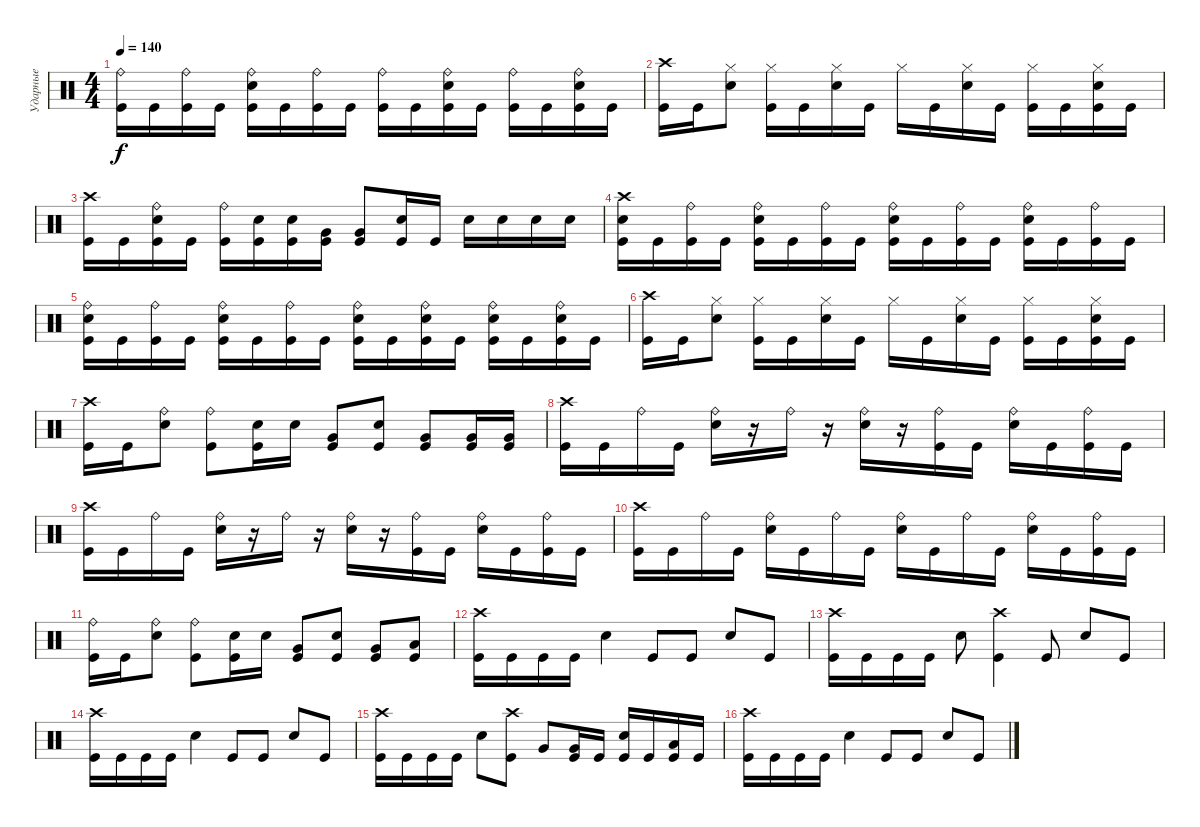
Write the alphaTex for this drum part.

\track ("Ударные" "Ударные") {instrument percussion}
\staff {score}
\articulation defaults
\ts (4 4)
\tempo 140
\clef neutral
\ks c
("Ride (bell)" "Kick (hit)").16{dy f} "Kick (hit)".16 ("Ride (bell)" "Kick (hit)").16 "Kick (hit)".16 ("Ride (bell)" "Electric Snare (hit)" "Kick (hit)").16 "Kick (hit)".16 ("Ride (bell)" "Kick (hit)").16 "Kick (hit)".16 ("Ride (bell)" "Kick (hit)").16 "Kick (hit)".16 ("Ride (bell)" "Electric Snare (hit)" "Kick (hit)").16 "Kick (hit)".16 ("Ride (bell)" "Kick (hit)").16 "Kick (hit)".16 ("Ride (bell)" "Electric Snare (hit)" "Kick (hit)").16 "Kick (hit)".16 |
("Crash high (hit)" "Kick (hit)").16 "Kick (hit)".16 ("Hi-Hat (closed)" "Electric Snare (hit)").8 ("Hi-Hat (closed)" "Kick (hit)").16 "Kick (hit)".16 ("Hi-Hat (closed)" "Electric Snare (hit)").16 "Kick (hit)".16 "Hi-Hat (closed)".16 "Kick (hit)".16 ("Hi-Hat (closed)" "Electric Snare (hit)").16 "Kick (hit)".16 ("Hi-Hat (closed)" "Kick (hit)").16 "Kick (hit)".16 ("Hi-Hat (closed)" "Electric Snare (hit)" "Kick (hit)").16 "Kick (hit)".16 |
("Crash high (hit)" "Kick (hit)").16 "Kick (hit)".16 ("Ride (bell)" "Electric Snare (hit)" "Kick (hit)").16 "Kick (hit)".16 ("Ride (bell)" "Kick (hit)").16 ("Electric Snare (hit)" "Kick (hit)").16 ("Electric Snare (hit)" "Kick (hit)").16 ("Very Low Tom (hit)" "Kick (hit)").16 ("Very Low Tom (hit)" "Kick (hit)").8 ("Electric Snare (hit)" "Kick (hit)").16 "Kick (hit)".16 "Electric Snare (hit)".16 "Electric Snare (hit)".16 "Electric Snare (hit)".16 "Electric Snare (hit)".16 |
("Crash high (hit)" "Electric Snare (hit)" "Kick (hit)").16 "Kick (hit)".16 ("Ride (bell)" "Kick (hit)").16 "Kick (hit)".16 ("Ride (bell)" "Electric Snare (hit)" "Kick (hit)").16 "Kick (hit)".16 ("Ride (bell)" "Kick (hit)").16 "Kick (hit)".16 ("Ride (bell)" "Electric Snare (hit)" "Kick (hit)").16 "Kick (hit)".16 ("Ride (bell)" "Kick (hit)").16 "Kick (hit)".16 ("Ride (bell)" "Electric Snare (hit)" "Kick (hit)").16 "Kick (hit)".16 ("Ride (bell)" "Kick (hit)").16 "Kick (hit)".16 |
("Ride (bell)" "Electric Snare (hit)" "Kick (hit)").16 "Kick (hit)".16 ("Ride (bell)" "Kick (hit)").16 "Kick (hit)".16 ("Ride (bell)" "Electric Snare (hit)" "Kick (hit)").16 "Kick (hit)".16 ("Ride (bell)" "Kick (hit)").16 "Kick (hit)".16 ("Ride (bell)" "Electric Snare (hit)" "Kick (hit)").16 "Kick (hit)".16 ("Ride (bell)" "Electric Snare (hit)" "Kick (hit)").16 "Kick (hit)".16 ("Ride (bell)" "Electric Snare (hit)" "Kick (hit)").16 "Kick (hit)".16 ("Ride (bell)" "Electric Snare (hit)" "Kick (hit)").16 "Kick (hit)".16 |
("Crash high (hit)" "Kick (hit)").16 "Kick (hit)".16 ("Hi-Hat (closed)" "Electric Snare (hit)").8 ("Hi-Hat (closed)" "Kick (hit)").16 "Kick (hit)".16 ("Hi-Hat (closed)" "Electric Snare (hit)").16 "Kick (hit)".16 "Hi-Hat (closed)".16 "Kick (hit)".16 ("Hi-Hat (closed)" "Electric Snare (hit)").16 "Kick (hit)".16 ("Hi-Hat (closed)" "Kick (hit)").16 "Kick (hit)".16 ("Hi-Hat (closed)" "Electric Snare (hit)" "Kick (hit)").16 "Kick (hit)".16 |
("Crash high (hit)" "Kick (hit)").16 "Kick (hit)".16 ("Ride (bell)" "Electric Snare (hit)").8 ("Ride (bell)" "Kick (hit)").8 ("Electric Snare (hit)" "Kick (hit)").16 "Electric Snare (hit)".16 ("Very Low Tom (hit)" "Kick (hit)").8 ("Electric Snare (hit)" "Kick (hit)").8 ("Very Low Tom (hit)" "Kick (hit)").8 ("Very Low Tom (hit)" "Kick (hit)").16 ("Very Low Tom (hit)" "Kick (hit)").16 |
("Crash high (hit)" "Kick (hit)").16 "Kick (hit)".16 "Ride (bell)".16 "Kick (hit)".16 ("Ride (bell)" "Electric Snare (hit)").16 r.16 "Ride (bell)".16 r.16 ("Ride (bell)" "Electric Snare (hit)").16 r.16 ("Ride (bell)" "Kick (hit)").16 "Kick (hit)".16 ("Ride (bell)" "Electric Snare (hit)").16 "Kick (hit)".16 ("Ride (bell)" "Kick (hit)").16 "Kick (hit)".16 |
("Crash high (hit)" "Kick (hit)").16 "Kick (hit)".16 "Ride (bell)".16 "Kick (hit)".16 ("Ride (bell)" "Electric Snare (hit)").16 r.16 "Ride (bell)".16 r.16 ("Ride (bell)" "Electric Snare (hit)").16 r.16 ("Ride (bell)" "Kick (hit)").16 "Kick (hit)".16 ("Ride (bell)" "Electric Snare (hit)").16 "Kick (hit)".16 ("Ride (bell)" "Kick (hit)").16 "Kick (hit)".16 |
("Crash high (hit)" "Kick (hit)").16 "Kick (hit)".16 "Ride (bell)".16 "Kick (hit)".16 ("Ride (bell)" "Electric Snare (hit)").16 "Kick (hit)".16 "Ride (bell)".16 "Kick (hit)".16 ("Ride (bell)" "Electric Snare (hit)").16 "Kick (hit)".16 "Ride (bell)".16 "Kick (hit)".16 ("Ride (bell)" "Electric Snare (hit)").16 "Kick (hit)".16 ("Ride (bell)" "Kick (hit)").16 "Kick (hit)".16 |
("Ride (bell)" "Kick (hit)").16 "Kick (hit)".16 ("Ride (bell)" "Electric Snare (hit)").8 ("Ride (bell)" "Kick (hit)").8 ("Electric Snare (hit)" "Kick (hit)").16 "Electric Snare (hit)".16 ("Very Low Tom (hit)" "Kick (hit)").8 ("Electric Snare (hit)" "Kick (hit)").8 ("Very Low Tom (hit)" "Kick (hit)").8 ("Low Tom (hit)" "Kick (hit)").8 |
("Crash high (hit)" "Kick (hit)").16 "Kick (hit)".16 "Kick (hit)".16 "Kick (hit)".16 "Electric Snare (hit)".4 "Kick (hit)".8 "Kick (hit)".8 "Electric Snare (hit)".8 "Kick (hit)".8 |
("Crash high (hit)" "Kick (hit)").16 "Kick (hit)".16 "Kick (hit)".16 "Kick (hit)".16 "Electric Snare (hit)".8 ("Crash high (hit)" "Kick (hit)").4 "Kick (hit)".8 "Electric Snare (hit)".8 "Kick (hit)".8 |
("Crash high (hit)" "Kick (hit)").16 "Kick (hit)".16 "Kick (hit)".16 "Kick (hit)".16 "Electric Snare (hit)".4 "Kick (hit)".8 "Kick (hit)".8 "Electric Snare (hit)".8 "Kick (hit)".8 |
("Crash high (hit)" "Kick (hit)").16 "Kick (hit)".16 "Kick (hit)".16 "Kick (hit)".16 "Electric Snare (hit)".8 ("Crash high (hit)" "Kick (hit)").8 "Very Low Tom (hit)".8 ("Very Low Tom (hit)" "Kick (hit)").16 "Kick (hit)".16 ("Electric Snare (hit)" "Kick (hit)").16 "Kick (hit)".16 ("Low Tom (hit)" "Kick (hit)").16 "Kick (hit)".16 |
("Crash high (hit)" "Kick (hit)").16 "Kick (hit)".16 "Kick (hit)".16 "Kick (hit)".16 "Electric Snare (hit)".4 "Kick (hit)".8 "Kick (hit)".8 "Electric Snare (hit)".8 "Kick (hit)".8
